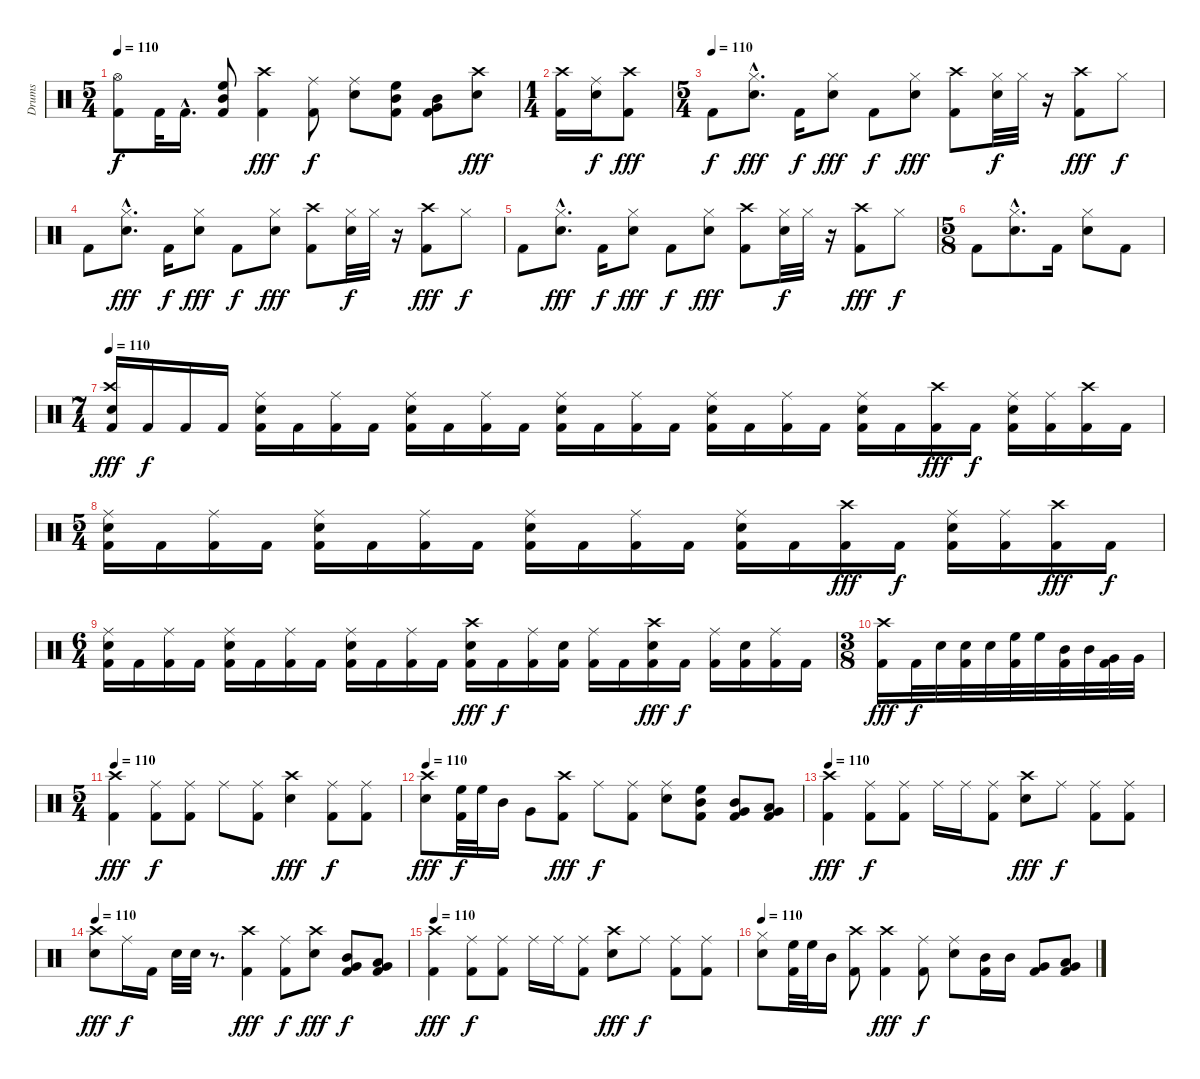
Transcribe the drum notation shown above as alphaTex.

\track ("Drums" "Drums") {instrument percussion}
\staff {score}
\articulation defaults
\ts (5 4)
\tempo 110
\clef neutral
\ks c
("Hi-Hat (open)" "Kick (hit) 2").8{dy f} "Kick (hit) 2".32 "Kick (hit) 2"{hac}.16{d} ("High Floor Tom (hit)" "Mid Tom (hit)" "Kick (hit) 2").8 ("Crash high (hit)" "Kick (hit) 2").4{dy fff} ("Ride (middle)" "Kick (hit) 2").8{dy f} ("Snare (hit) 2" "Ride (middle)").8 ("Kick (hit) 2" "High Floor Tom (hit)" "Mid Tom (hit)").8 ("Mid Tom (hit)" "Very Low Tom (hit)" "Kick (hit) 2").8 ("Crash high (hit)" "Snare (hit) 2").8{dy fff} |
\ts (1 4)
("Crash high (hit)" "Kick (hit) 2").16 ("Ride (middle)" "Snare (hit) 2").16{dy f} ("Crash high (hit)" "Kick (hit) 2").8{dy fff} |
\ts (5 4)
\tempo (110)
"Kick (hit) 2".8{dy f} ("Hi-Hat (closed)"{hac} "Snare (hit) 2"{hac}).8{d dy fff} "Kick (hit) 2".16{dy f} ("Hi-Hat (closed)" "Snare (hit) 2").8{dy fff} "Kick (hit) 2".8{dy f} ("Hi-Hat (closed)" "Snare (hit) 2").8{dy fff} ("Crash high (hit)" "Kick (hit) 2").8 ("Hi-Hat (closed)" "Snare (hit) 2").32{dy f} "Hi-Hat (closed)".32 r.16 ("Crash high (hit)" "Kick (hit) 2").8{dy fff} "Hi-Hat (closed)".8{dy f} |
"Kick (hit) 2".8 ("Hi-Hat (closed)"{hac} "Snare (hit) 2"{hac}).8{d dy fff} "Kick (hit) 2".16{dy f} ("Hi-Hat (closed)" "Snare (hit) 2").8{dy fff} "Kick (hit) 2".8{dy f} ("Hi-Hat (closed)" "Snare (hit) 2").8{dy fff} ("Crash high (hit)" "Kick (hit) 2").8 ("Hi-Hat (closed)" "Snare (hit) 2").32{dy f} "Hi-Hat (closed)".32 r.16 ("Crash high (hit)" "Kick (hit) 2").8{dy fff} "Hi-Hat (closed)".8{dy f} |
"Kick (hit) 2".8 ("Hi-Hat (closed)"{hac} "Snare (hit) 2"{hac}).8{d dy fff} "Kick (hit) 2".16{dy f} ("Hi-Hat (closed)" "Snare (hit) 2").8{dy fff} "Kick (hit) 2".8{dy f} ("Hi-Hat (closed)" "Snare (hit) 2").8{dy fff} ("Crash high (hit)" "Kick (hit) 2").8 ("Hi-Hat (closed)" "Snare (hit) 2").32{dy f} "Hi-Hat (closed)".32 r.16 ("Crash high (hit)" "Kick (hit) 2").8{dy fff} "Hi-Hat (closed)".8{dy f} |
\ts (5 8)
"Kick (hit) 2".8 ("Hi-Hat (closed)"{hac} "Snare (hit) 2"{hac}).8{d} "Kick (hit) 2".16 ("Hi-Hat (closed)" "Snare (hit) 2").8 "Kick (hit) 2".8 |
\ts (7 4)
\tempo 110
("Crash high (hit)" "Snare (hit) 2" "Kick (hit) 2").16{dy fff} "Kick (hit) 2".16{dy f} "Kick (hit) 2".16 "Kick (hit) 2".16 ("Ride (middle)" "Snare (hit) 2" "Kick (hit) 2").16 "Kick (hit) 2".16 ("Ride (middle)" "Kick (hit) 2").16 "Kick (hit) 2".16 ("Ride (middle)" "Snare (hit) 2" "Kick (hit) 2").16 "Kick (hit) 2".16 ("Ride (middle)" "Kick (hit) 2").16 "Kick (hit) 2".16 ("Ride (middle)" "Snare (hit) 2" "Kick (hit) 2").16 "Kick (hit) 2".16 ("Ride (middle)" "Kick (hit) 2").16 "Kick (hit) 2".16 ("Ride (middle)" "Snare (hit) 2" "Kick (hit) 2").16 "Kick (hit) 2".16 ("Ride (middle)" "Kick (hit) 2").16 "Kick (hit) 2".16 ("Ride (middle)" "Snare (hit) 2" "Kick (hit) 2").16 "Kick (hit) 2".16 ("Crash high (hit)" "Kick (hit) 2").16{dy fff} "Kick (hit) 2".16{dy f} ("Ride (middle)" "Snare (hit) 2" "Kick (hit) 2").16 ("Ride (middle)" "Kick (hit) 2").16 ("Crash high (hit)" "Kick (hit) 2").16 "Kick (hit) 2".16 |
\ts (5 4)
("Ride (middle)" "Snare (hit) 2" "Kick (hit) 2").16 "Kick (hit) 2".16 ("Ride (middle)" "Kick (hit) 2").16 "Kick (hit) 2".16 ("Ride (middle)" "Snare (hit) 2" "Kick (hit) 2").16 "Kick (hit) 2".16 ("Ride (middle)" "Kick (hit) 2").16 "Kick (hit) 2".16 ("Ride (middle)" "Snare (hit) 2" "Kick (hit) 2").16 "Kick (hit) 2".16 ("Ride (middle)" "Kick (hit) 2").16 "Kick (hit) 2".16 ("Ride (middle)" "Snare (hit) 2" "Kick (hit) 2").16 "Kick (hit) 2".16 ("Crash high (hit)" "Kick (hit) 2").16{dy fff} "Kick (hit) 2".16{dy f} ("Ride (middle)" "Snare (hit) 2" "Kick (hit) 2").16 ("Ride (middle)" "Kick (hit) 2").16 ("Crash high (hit)" "Kick (hit) 2").16{dy fff} "Kick (hit) 2".16{dy f} |
\ts (6 4)
("Ride (middle)" "Snare (hit) 2" "Kick (hit) 2").16 "Kick (hit) 2".16 ("Ride (middle)" "Kick (hit) 2").16 "Kick (hit) 2".16 ("Ride (middle)" "Snare (hit) 2" "Kick (hit) 2").16 "Kick (hit) 2".16 ("Ride (middle)" "Kick (hit) 2").16 "Kick (hit) 2".16 ("Ride (middle)" "Snare (hit) 2" "Kick (hit) 2").16 "Kick (hit) 2".16 ("Ride (middle)" "Kick (hit) 2").16 "Kick (hit) 2".16 ("Crash high (hit)" "Snare (hit) 2" "Kick (hit) 2").16{dy fff} "Kick (hit) 2".16{dy f} ("Ride (middle)" "Kick (hit) 2").16 ("Snare (hit) 2" "Kick (hit) 2").16 ("Ride (middle)" "Kick (hit) 2").16 "Kick (hit) 2".16 ("Crash high (hit)" "Snare (hit) 2" "Kick (hit) 2").16{dy fff} "Kick (hit) 2".16{dy f} ("Ride (middle)" "Kick (hit) 2").16 ("Snare (hit) 2" "Kick (hit) 2").16 ("Ride (middle)" "Kick (hit) 2").16 "Kick (hit) 2".16 |
\ts (3 8)
("Crash high (hit)" "Kick (hit) 2").16{dy fff} "Kick (hit) 2".32{dy f} "Snare (hit) 2".32 ("Snare (hit) 2" "Kick (hit) 2").32 "Snare (hit) 2".32 ("High Floor Tom (hit)" "Kick (hit) 2").32 "High Floor Tom (hit)".32 ("Mid Tom (hit)" "Kick (hit) 2").32 "Mid Tom (hit)".32 ("Kick (hit) 2" "Very Low Tom (hit)").32 "Very Low Tom (hit)".32 |
\ts (5 4)
\tempo 110
("Crash high (hit)" "Kick (hit) 2").4{dy fff} ("Ride (middle)" "Kick (hit) 2").8{dy f} ("Ride (middle)" "Kick (hit) 2").8 "Ride (middle)".8 ("Ride (middle)" "Kick (hit) 2").8 ("Crash high (hit)" "Snare (hit) 2").4{dy fff} ("Ride (middle)" "Kick (hit) 2").8{dy f} ("Ride (middle)" "Kick (hit) 2").8 |
\tempo 110
("Crash high (hit)" "Snare (hit) 2").8{dy fff} ("High Floor Tom (hit)" "Kick (hit) 2").32{dy f} "High Floor Tom (hit)".32 "Mid Tom (hit)".16 "Very Low Tom (hit)".8 ("Crash high (hit)" "Kick (hit) 2").8{dy fff} "Ride (middle)".8{dy f} ("Ride (middle)" "Kick (hit) 2").8 ("Ride (middle)" "Snare (hit) 2").8 ("High Floor Tom (hit)" "Mid Tom (hit)" "Kick (hit) 2").8 ("Kick (hit) 2" "Mid Tom (hit)" "Very Low Tom (hit)").8 ("Very Low Tom (hit)" "Low Floor Tom (hit)" "Kick (hit) 2").8 |
\tempo 110
("Crash high (hit)" "Kick (hit) 2").4{dy fff} ("Ride (middle)" "Kick (hit) 2").8{dy f} ("Ride (middle)" "Kick (hit) 2").8 "Ride (middle)".16 "Ride (middle)".16 ("Ride (middle)" "Kick (hit) 2").8 ("Crash high (hit)" "Snare (hit) 2").8{dy fff} "Ride (middle)".8{dy f} ("Ride (middle)" "Kick (hit) 2").8 ("Ride (middle)" "Kick (hit) 2").8 |
\tempo 110
("Crash high (hit)" "Snare (hit) 2").8{dy fff} "Ride (middle)".16{dy f} "Kick (hit) 2".16 "Snare (hit) 2".32 "Snare (hit) 2".32 r.8{d} ("Crash high (hit)" "Kick (hit) 2").4{dy fff} ("Ride (middle)" "Kick (hit) 2").8{dy f} ("Crash high (hit)" "Snare (hit) 2").8{dy fff} ("Mid Tom (hit)" "Very Low Tom (hit)" "Kick (hit) 2").8{dy f} ("Low Floor Tom (hit)" "Very Low Tom (hit)" "Kick (hit) 2").8 |
\tempo 110
("Crash high (hit)" "Kick (hit) 2").4{dy fff} ("Ride (middle)" "Kick (hit) 2").8{dy f} ("Ride (middle)" "Kick (hit) 2").8 "Ride (middle)".16 "Ride (middle)".16 ("Ride (middle)" "Kick (hit) 2").8 ("Crash high (hit)" "Snare (hit) 2").8{dy fff} "Ride (middle)".8{dy f} ("Ride (middle)" "Kick (hit) 2").8 ("Ride (middle)" "Kick (hit) 2").8 |
\tempo 110
("Hi-Hat (closed)" "Snare (hit) 2").8 ("High Floor Tom (hit)" "Kick (hit) 2").32 "High Floor Tom (hit)".32 "Mid Tom (hit)".16 ("Crash high (hit)" "Kick (hit) 2").8 ("Kick (hit) 2" "Crash high (hit)").4{dy fff} ("Ride (middle)" "Kick (hit) 2").8{dy f} ("Ride (middle)" "Snare (hit) 2").8 ("Mid Tom (hit)" "Kick (hit) 2").16 "Mid Tom (hit)".16 ("Very Low Tom (hit)" "Kick (hit) 2").8 ("Very Low Tom (hit)" "Low Floor Tom (hit)" "Kick (hit) 2").8
